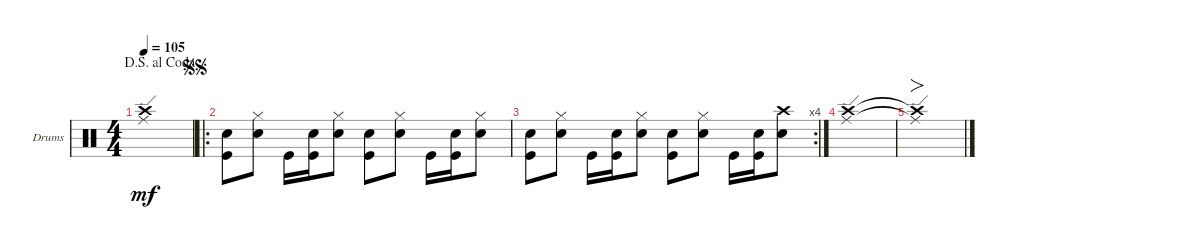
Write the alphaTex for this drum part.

\defaultSystemsLayout 4
\bracketExtendMode groupsimilarinstruments
\firstSystemTrackNameOrientation horizontal
\otherSystemsTrackNameOrientation horizontal
\track ("Drums" "Drums") {instrument percussion}
\staff {score}
\articulation defaults
\ts (4 4)
\jump dalsegnoalcoda
\tempo 105
\clef neutral
\scale
0.49463
\ks c
("Ride (edge)"{t} "Crash high (hit)"{t}).1{dy mf} |
\ro
\jump segnosegno
\scale
0.505893 ("Kick (hit)" "Snare (hit) 2").8 ("Snare (hit) 2" "Hi-Hat (closed)").8 "Kick (hit)".16 ("Snare (hit) 2" "Kick (hit)").16 ("Snare (hit) 2" "Hi-Hat (closed)").8 ("Snare (hit) 2" "Kick (hit)").8 ("Snare (hit) 2" "Hi-Hat (closed)").8 "Kick (hit)".16 ("Snare (hit) 2" "Kick (hit)").16 ("Snare (hit) 2" "Hi-Hat (closed)").8 |
\rc 4
\scale
0.49401 ("Kick (hit)" "Snare (hit) 2").8 ("Snare (hit) 2" "Hi-Hat (closed)").8 "Kick (hit)".16 ("Snare (hit) 2" "Kick (hit)").16 ("Snare (hit) 2" "Hi-Hat (closed)").8 ("Snare (hit) 2" "Kick (hit)").8 ("Snare (hit) 2" "Hi-Hat (closed)").8 "Kick (hit)".16 ("Snare (hit) 2" "Kick (hit)").16 ("Snare (hit) 2" "Crash high (hit)").8 |
("Ride (edge)" "Crash high (hit)").1 |
("Ride (edge)"{t} "Crash high (hit)"{t}).1{fo}
